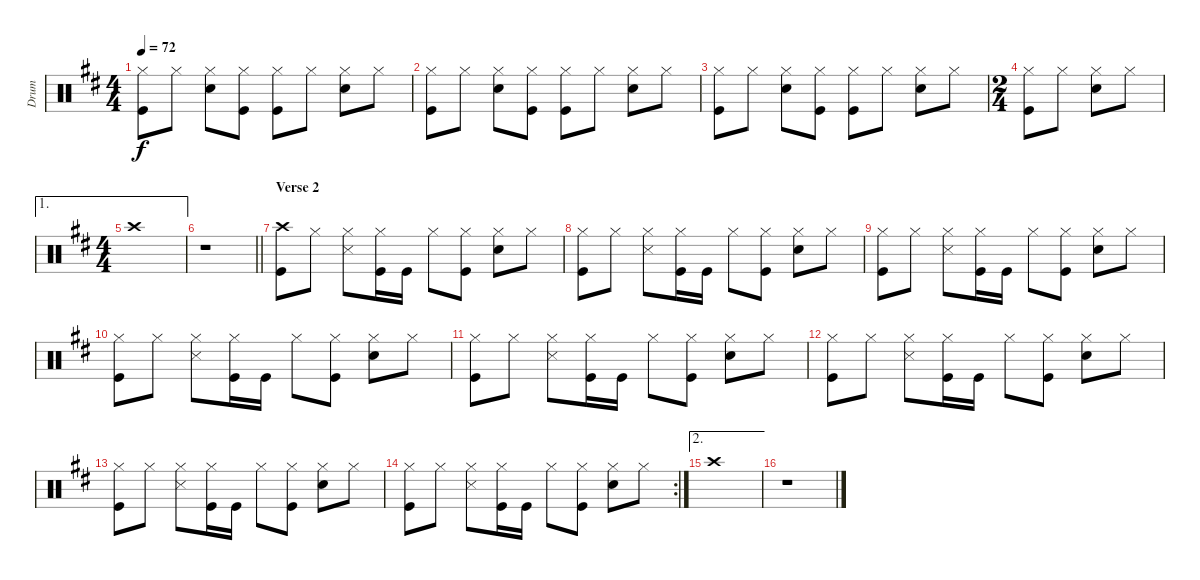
\track ("Drum" "Drum") {instrument percussion}
\staff {score}
\articulation defaults
\ts (4 4)
\tempo 72
\clef neutral
\ks d
("Hi-Hat (closed)" "Kick (hit)").8{dy f} "Hi-Hat (closed)".8 ("Hi-Hat (closed)" "Snare (hit) 2").8 ("Hi-Hat (closed)" "Kick (hit)").8 ("Hi-Hat (closed)" "Kick (hit)").8 "Hi-Hat (closed)".8 ("Hi-Hat (closed)" "Snare (hit) 2").8 "Hi-Hat (closed)".8 |
("Hi-Hat (closed)" "Kick (hit)").8 "Hi-Hat (closed)".8 ("Hi-Hat (closed)" "Snare (hit) 2").8 ("Hi-Hat (closed)" "Kick (hit)").8 ("Hi-Hat (closed)" "Kick (hit)").8 "Hi-Hat (closed)".8 ("Hi-Hat (closed)" "Snare (hit) 2").8 "Hi-Hat (closed)".8 |
("Hi-Hat (closed)" "Kick (hit)").8 "Hi-Hat (closed)".8 ("Hi-Hat (closed)" "Snare (hit) 2").8 ("Hi-Hat (closed)" "Kick (hit)").8 ("Hi-Hat (closed)" "Kick (hit)").8 "Hi-Hat (closed)".8 ("Hi-Hat (closed)" "Snare (hit) 2").8 "Hi-Hat (closed)".8 |
\ts (2 4)
("Hi-Hat (closed)" "Kick (hit)").8 "Hi-Hat (closed)".8 ("Hi-Hat (closed)" "Snare (hit) 2").8 "Hi-Hat (closed)".8 |
\ae 1
\ts (4 4)
"Crash high (hit)".1 |
\barLineRight lightlight
r.1 |
\section ("" "Verse 2")
("Crash high (hit)" "Kick (hit)").8 "Hi-Hat (closed)".8 ("Hi-Hat (closed)" "Snare (side stick) 3").8 ("Hi-Hat (closed)" "Kick (hit)").16 "Kick (hit)".16 "Hi-Hat (closed)".8 ("Hi-Hat (closed)" "Kick (hit)").8 ("Hi-Hat (closed)" "Snare (hit) 2").8 "Hi-Hat (closed)".8 |
("Hi-Hat (closed)" "Kick (hit)").8 "Hi-Hat (closed)".8 ("Hi-Hat (closed)" "Snare (side stick) 3").8 ("Hi-Hat (closed)" "Kick (hit)").16 "Kick (hit)".16 "Hi-Hat (closed)".8 ("Hi-Hat (closed)" "Kick (hit)").8 ("Hi-Hat (closed)" "Snare (hit) 2").8 "Hi-Hat (closed)".8 |
("Hi-Hat (closed)" "Kick (hit)").8 "Hi-Hat (closed)".8 ("Hi-Hat (closed)" "Snare (side stick) 3").8 ("Hi-Hat (closed)" "Kick (hit)").16 "Kick (hit)".16 "Hi-Hat (closed)".8 ("Hi-Hat (closed)" "Kick (hit)").8 ("Hi-Hat (closed)" "Snare (hit) 2").8 "Hi-Hat (closed)".8 |
("Hi-Hat (closed)" "Kick (hit)").8 "Hi-Hat (closed)".8 ("Hi-Hat (closed)" "Snare (side stick) 3").8 ("Hi-Hat (closed)" "Kick (hit)").16 "Kick (hit)".16 "Hi-Hat (closed)".8 ("Hi-Hat (closed)" "Kick (hit)").8 ("Hi-Hat (closed)" "Snare (hit) 2").8 "Hi-Hat (closed)".8 |
("Hi-Hat (closed)" "Kick (hit)").8 "Hi-Hat (closed)".8 ("Hi-Hat (closed)" "Snare (side stick) 3").8 ("Hi-Hat (closed)" "Kick (hit)").16 "Kick (hit)".16 "Hi-Hat (closed)".8 ("Hi-Hat (closed)" "Kick (hit)").8 ("Hi-Hat (closed)" "Snare (hit) 2").8 "Hi-Hat (closed)".8 |
("Hi-Hat (closed)" "Kick (hit)").8 "Hi-Hat (closed)".8 ("Hi-Hat (closed)" "Snare (side stick) 3").8 ("Hi-Hat (closed)" "Kick (hit)").16 "Kick (hit)".16 "Hi-Hat (closed)".8 ("Hi-Hat (closed)" "Kick (hit)").8 ("Hi-Hat (closed)" "Snare (hit) 2").8 "Hi-Hat (closed)".8 |
("Hi-Hat (closed)" "Kick (hit)").8 "Hi-Hat (closed)".8 ("Hi-Hat (closed)" "Snare (side stick) 3").8 ("Hi-Hat (closed)" "Kick (hit)").16 "Kick (hit)".16 "Hi-Hat (closed)".8 ("Hi-Hat (closed)" "Kick (hit)").8 ("Hi-Hat (closed)" "Snare (hit) 2").8 "Hi-Hat (closed)".8 |
\rc 2
("Hi-Hat (closed)" "Kick (hit)").8 "Hi-Hat (closed)".8 ("Hi-Hat (closed)" "Snare (side stick) 3").8 ("Hi-Hat (closed)" "Kick (hit)").16 "Kick (hit)".16 "Hi-Hat (closed)".8 ("Hi-Hat (closed)" "Kick (hit)").8 ("Hi-Hat (closed)" "Snare (hit) 2").8 "Hi-Hat (closed)".8 |
\ae 2 "Crash high (hit)".1
|
r.1
